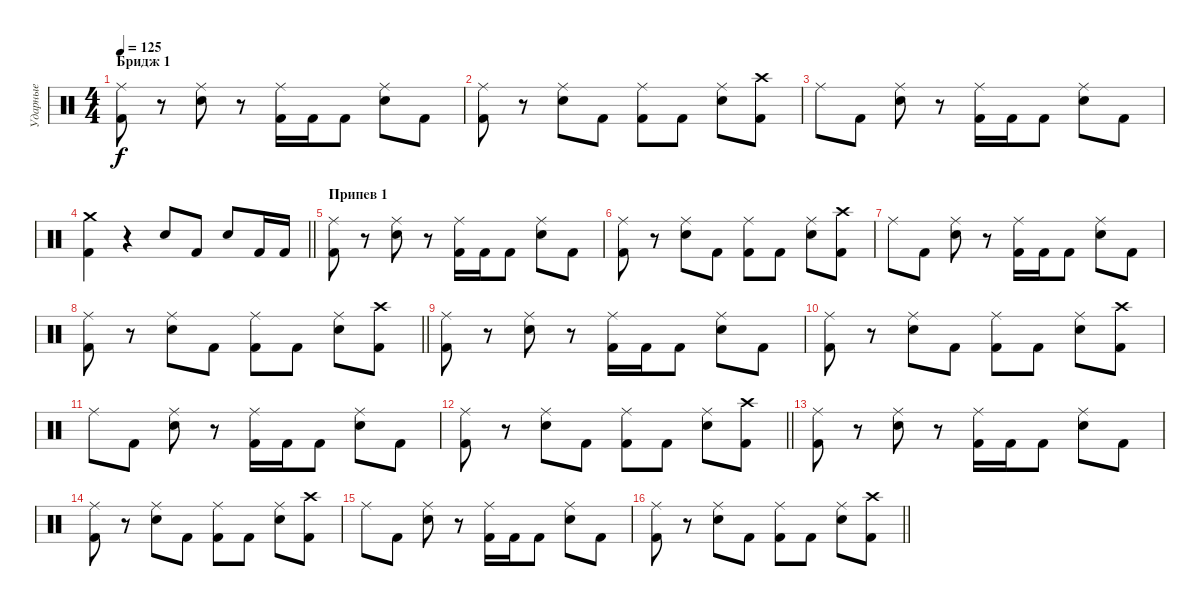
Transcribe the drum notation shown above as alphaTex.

\track ("Ударные" "Ударные") {instrument percussion}
\staff {score}
\articulation defaults
\ts (4 4)
\section ("" "Бридж 1")
\tempo 125
\clef neutral
\ks c
("Ride (middle)" "Kick (hit) 2").8{dy f} r.8 ("Ride (middle)" "Snare (hit) 2").8 r.8 ("Ride (middle)" "Kick (hit) 2").16 "Kick (hit) 2".16 "Kick (hit) 2".8 ("Ride (middle)" "Snare (hit) 2").8 "Kick (hit) 2".8 |
("Ride (middle)" "Kick (hit) 2").8 r.8 ("Ride (middle)" "Snare (hit) 2").8 "Kick (hit) 2".8 ("Ride (middle)" "Kick (hit) 2").8 "Kick (hit) 2".8 ("Ride (middle)" "Snare (hit) 2").8 ("Crash high (hit)" "Kick (hit) 2").8 |
"Ride (middle)".8 "Kick (hit) 2".8 ("Ride (middle)" "Snare (hit) 2").8 r.8 ("Ride (middle)" "Kick (hit) 2").16 "Kick (hit) 2".16 "Kick (hit) 2".8 ("Ride (middle)" "Snare (hit) 2").8 "Kick (hit) 2".8 |
\barLineRight lightlight
("Kick (hit) 2" "Crash medium (hit)").4 r.4 "Snare (hit) 2".8 "Kick (hit) 2".8 "Snare (hit) 2".8 "Kick (hit) 2".16 "Kick (hit) 2".16 |
\section ("" "Припев 1")
("Ride (middle)" "Kick (hit) 2").8 r.8 ("Ride (middle)" "Snare (hit) 2").8 r.8 ("Ride (middle)" "Kick (hit) 2").16 "Kick (hit) 2".16 "Kick (hit) 2".8 ("Ride (middle)" "Snare (hit) 2").8 "Kick (hit) 2".8 |
("Ride (middle)" "Kick (hit) 2").8 r.8 ("Ride (middle)" "Snare (hit) 2").8 "Kick (hit) 2".8 ("Ride (middle)" "Kick (hit) 2").8 "Kick (hit) 2".8 ("Ride (middle)" "Snare (hit) 2").8 ("Crash high (hit)" "Kick (hit) 2").8 |
"Ride (middle)".8 "Kick (hit) 2".8 ("Ride (middle)" "Snare (hit) 2").8 r.8 ("Ride (middle)" "Kick (hit) 2").16 "Kick (hit) 2".16 "Kick (hit) 2".8 ("Ride (middle)" "Snare (hit) 2").8 "Kick (hit) 2".8 |
\barLineRight lightlight
("Ride (middle)" "Kick (hit) 2").8 r.8 ("Ride (middle)" "Snare (hit) 2").8 "Kick (hit) 2".8 ("Ride (middle)" "Kick (hit) 2").8 "Kick (hit) 2".8 ("Ride (middle)" "Snare (hit) 2").8 ("Crash high (hit)" "Kick (hit) 2").8 |
("Ride (middle)" "Kick (hit) 2").8 r.8 ("Ride (middle)" "Snare (hit) 2").8 r.8 ("Ride (middle)" "Kick (hit) 2").16 "Kick (hit) 2".16 "Kick (hit) 2".8 ("Ride (middle)" "Snare (hit) 2").8 "Kick (hit) 2".8 |
("Ride (middle)" "Kick (hit) 2").8 r.8 ("Ride (middle)" "Snare (hit) 2").8 "Kick (hit) 2".8 ("Ride (middle)" "Kick (hit) 2").8 "Kick (hit) 2".8 ("Ride (middle)" "Snare (hit) 2").8 ("Crash high (hit)" "Kick (hit) 2").8 |
"Ride (middle)".8 "Kick (hit) 2".8 ("Ride (middle)" "Snare (hit) 2").8 r.8 ("Ride (middle)" "Kick (hit) 2").16 "Kick (hit) 2".16 "Kick (hit) 2".8 ("Ride (middle)" "Snare (hit) 2").8 "Kick (hit) 2".8 |
\barLineRight lightlight
("Ride (middle)" "Kick (hit) 2").8 r.8 ("Ride (middle)" "Snare (hit) 2").8 "Kick (hit) 2".8 ("Ride (middle)" "Kick (hit) 2").8 "Kick (hit) 2".8 ("Ride (middle)" "Snare (hit) 2").8 ("Crash high (hit)" "Kick (hit) 2").8 |
\section ("" "")
("Ride (middle)" "Kick (hit) 2").8 r.8 ("Ride (middle)" "Snare (hit) 2").8 r.8 ("Ride (middle)" "Kick (hit) 2").16 "Kick (hit) 2".16 "Kick (hit) 2".8 ("Ride (middle)" "Snare (hit) 2").8 "Kick (hit) 2".8 |
("Ride (middle)" "Kick (hit) 2").8 r.8 ("Ride (middle)" "Snare (hit) 2").8 "Kick (hit) 2".8 ("Ride (middle)" "Kick (hit) 2").8 "Kick (hit) 2".8 ("Ride (middle)" "Snare (hit) 2").8 ("Crash high (hit)" "Kick (hit) 2").8 |
"Ride (middle)".8 "Kick (hit) 2".8 ("Ride (middle)" "Snare (hit) 2").8 r.8 ("Ride (middle)" "Kick (hit) 2").16 "Kick (hit) 2".16 "Kick (hit) 2".8 ("Ride (middle)" "Snare (hit) 2").8 "Kick (hit) 2".8 |
\barLineRight lightlight
("Ride (middle)" "Kick (hit) 2").8 r.8 ("Ride (middle)" "Snare (hit) 2").8 "Kick (hit) 2".8 ("Ride (middle)" "Kick (hit) 2").8 "Kick (hit) 2".8 ("Ride (middle)" "Snare (hit) 2").8 ("Crash high (hit)" "Kick (hit) 2").8
